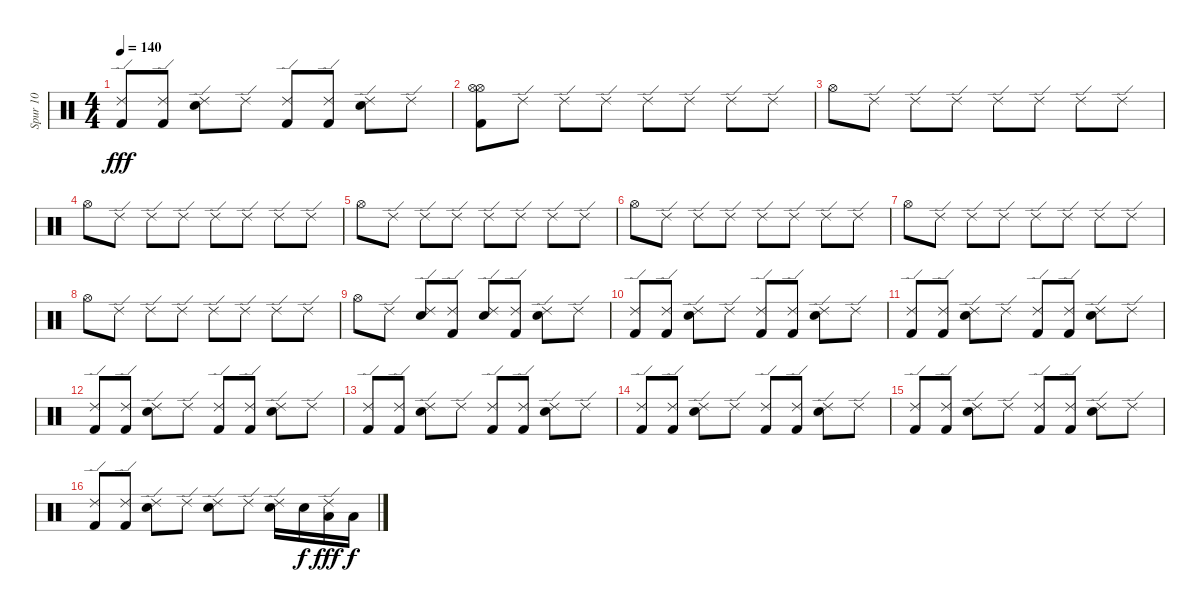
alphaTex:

\track ("Spur 10" "Spur 10") {instrument percussion}
\staff {score}
\articulation defaults
\ts (4 4)
\tempo 140
\clef neutral
\ks c
("Ride (edge) 2" "Kick (hit) 2").8{dy fff} ("Ride (edge) 2" "Kick (hit) 2").8 ("Ride (edge) 2" "Electric Snare (hit)").8 "Ride (edge) 2".8 ("Ride (edge) 2" "Kick (hit) 2").8 ("Ride (edge) 2" "Kick (hit) 2").8 ("Ride (edge) 2" "Electric Snare (hit)").8 "Ride (edge) 2".8 |
("Hi-Hat (open)" "Hi-Hat (open)" "Kick (hit) 2").8 "Ride (edge) 2".8 "Ride (edge) 2".8 "Ride (edge) 2".8 "Ride (edge) 2".8 "Ride (edge) 2".8 "Ride (edge) 2".8 "Ride (edge) 2".8 |
"Hi-Hat (open)".8 "Ride (edge) 2".8 "Ride (edge) 2".8 "Ride (edge) 2".8 "Ride (edge) 2".8 "Ride (edge) 2".8 "Ride (edge) 2".8 "Ride (edge) 2".8 |
"Hi-Hat (open)".8 "Ride (edge) 2".8 "Ride (edge) 2".8 "Ride (edge) 2".8 "Ride (edge) 2".8 "Ride (edge) 2".8 "Ride (edge) 2".8 "Ride (edge) 2".8 |
"Hi-Hat (open)".8 "Ride (edge) 2".8 "Ride (edge) 2".8 "Ride (edge) 2".8 "Ride (edge) 2".8 "Ride (edge) 2".8 "Ride (edge) 2".8 "Ride (edge) 2".8 |
"Hi-Hat (open)".8 "Ride (edge) 2".8 "Ride (edge) 2".8 "Ride (edge) 2".8 "Ride (edge) 2".8 "Ride (edge) 2".8 "Ride (edge) 2".8 "Ride (edge) 2".8 |
"Hi-Hat (open)".8 "Ride (edge) 2".8 "Ride (edge) 2".8 "Ride (edge) 2".8 "Ride (edge) 2".8 "Ride (edge) 2".8 "Ride (edge) 2".8 "Ride (edge) 2".8 |
"Hi-Hat (open)".8 "Ride (edge) 2".8 "Ride (edge) 2".8 "Ride (edge) 2".8 "Ride (edge) 2".8 "Ride (edge) 2".8 "Ride (edge) 2".8 "Ride (edge) 2".8 |
"Hi-Hat (open)".8 "Ride (edge) 2".8 ("Ride (edge) 2" "Snare (hit) 2").8 ("Ride (edge) 2" "Kick (hit) 2").8 ("Ride (edge) 2" "Electric Snare (hit)").8 ("Ride (edge) 2" "Kick (hit) 2").8 ("Ride (edge) 2" "Snare (hit) 2").8 "Ride (edge) 2".8 |
("Ride (edge) 2" "Kick (hit) 2").8 ("Ride (edge) 2" "Kick (hit) 2").8 ("Ride (edge) 2" "Electric Snare (hit)").8 "Ride (edge) 2".8 ("Ride (edge) 2" "Kick (hit) 2").8 ("Ride (edge) 2" "Kick (hit) 2").8 ("Ride (edge) 2" "Electric Snare (hit)").8 "Ride (edge) 2".8 |
("Ride (edge) 2" "Kick (hit) 2").8 ("Ride (edge) 2" "Kick (hit) 2").8 ("Ride (edge) 2" "Electric Snare (hit)").8 "Ride (edge) 2".8 ("Ride (edge) 2" "Kick (hit) 2").8 ("Ride (edge) 2" "Kick (hit) 2").8 ("Ride (edge) 2" "Electric Snare (hit)").8 "Ride (edge) 2".8 |
("Ride (edge) 2" "Kick (hit) 2").8 ("Ride (edge) 2" "Kick (hit) 2").8 ("Ride (edge) 2" "Electric Snare (hit)").8 "Ride (edge) 2".8 ("Ride (edge) 2" "Kick (hit) 2").8 ("Ride (edge) 2" "Kick (hit) 2").8 ("Ride (edge) 2" "Electric Snare (hit)").8 "Ride (edge) 2".8 |
("Ride (edge) 2" "Kick (hit) 2").8 ("Ride (edge) 2" "Kick (hit) 2").8 ("Ride (edge) 2" "Electric Snare (hit)").8 "Ride (edge) 2".8 ("Ride (edge) 2" "Kick (hit) 2").8 ("Ride (edge) 2" "Kick (hit) 2").8 ("Ride (edge) 2" "Electric Snare (hit)").8 "Ride (edge) 2".8 |
("Ride (edge) 2" "Kick (hit) 2").8 ("Ride (edge) 2" "Kick (hit) 2").8 ("Ride (edge) 2" "Electric Snare (hit)").8 "Ride (edge) 2".8 ("Ride (edge) 2" "Kick (hit) 2").8 ("Ride (edge) 2" "Kick (hit) 2").8 ("Ride (edge) 2" "Electric Snare (hit)").8 "Ride (edge) 2".8 |
("Ride (edge) 2" "Kick (hit) 2").8 ("Ride (edge) 2" "Kick (hit) 2").8 ("Ride (edge) 2" "Electric Snare (hit)").8 "Ride (edge) 2".8 ("Ride (edge) 2" "Kick (hit) 2").8 ("Ride (edge) 2" "Kick (hit) 2").8 ("Ride (edge) 2" "Electric Snare (hit)").8 "Ride (edge) 2".8 |
("Ride (edge) 2" "Kick (hit) 2").8 ("Ride (edge) 2" "Kick (hit) 2").8 ("Ride (edge) 2" "Electric Snare (hit)").8 "Ride (edge) 2".8 ("Ride (edge) 2" "Electric Snare (hit)").8 "Ride (edge) 2".8 ("Ride (edge) 2" "Snare (hit) 2").16 "Snare (hit) 2".16{dy f} ("Ride (edge) 2" "Low Tom (hit)").16{dy fff} "Low Tom (hit)".16{dy f}
